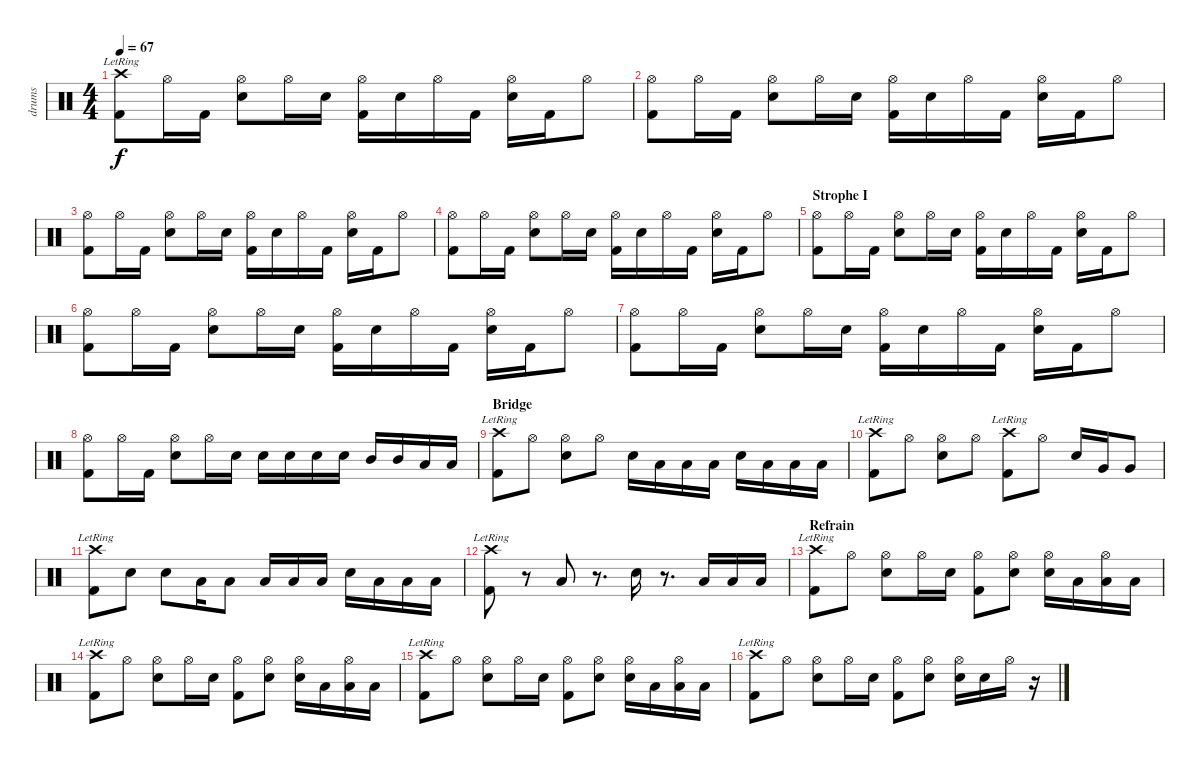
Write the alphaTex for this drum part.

\track ("drums" "drums") {instrument percussion}
\staff {score}
\articulation defaults
\ts (4 4)
\tempo 67
\clef neutral
\ks c
("Crash high (hit)"{lr} "Kick (hit) 2").8{dy f} "Hi-Hat (open)".16 "Kick (hit) 2".16 ("Hi-Hat (open)" "Snare (hit) 2").8 "Hi-Hat (open)".16 "Snare (hit) 2".16 ("Hi-Hat (open)" "Kick (hit) 2").16 "Snare (hit) 2".16 "Hi-Hat (open)".16 "Kick (hit) 2".16 ("Hi-Hat (open)" "Snare (hit) 2").16 "Kick (hit) 2".16 "Hi-Hat (open)".8 |
("Hi-Hat (open)" "Kick (hit) 2").8 "Hi-Hat (open)".16 "Kick (hit) 2".16 ("Hi-Hat (open)" "Snare (hit) 2").8 "Hi-Hat (open)".16 "Snare (hit) 2".16 ("Hi-Hat (open)" "Kick (hit) 2").16 "Snare (hit) 2".16 "Hi-Hat (open)".16 "Kick (hit) 2".16 ("Hi-Hat (open)" "Snare (hit) 2").16 "Kick (hit) 2".16 "Hi-Hat (open)".8 |
("Hi-Hat (open)" "Kick (hit) 2").8 "Hi-Hat (open)".16 "Kick (hit) 2".16 ("Hi-Hat (open)" "Snare (hit) 2").8 "Hi-Hat (open)".16 "Snare (hit) 2".16 ("Hi-Hat (open)" "Kick (hit) 2").16 "Snare (hit) 2".16 "Hi-Hat (open)".16 "Kick (hit) 2".16 ("Hi-Hat (open)" "Snare (hit) 2").16 "Kick (hit) 2".16 "Hi-Hat (open)".8 |
("Hi-Hat (open)" "Kick (hit) 2").8 "Hi-Hat (open)".16 "Kick (hit) 2".16 ("Hi-Hat (open)" "Snare (hit) 2").8 "Hi-Hat (open)".16 "Snare (hit) 2".16 ("Hi-Hat (open)" "Kick (hit) 2").16 "Snare (hit) 2".16 "Hi-Hat (open)".16 "Kick (hit) 2".16 ("Hi-Hat (open)" "Snare (hit) 2").16 "Kick (hit) 2".16 "Hi-Hat (open)".8 |
\section ("" "Strophe I")
("Hi-Hat (open)" "Kick (hit) 2").8 "Hi-Hat (open)".16 "Kick (hit) 2".16 ("Hi-Hat (open)" "Snare (hit) 2").8 "Hi-Hat (open)".16 "Snare (hit) 2".16 ("Hi-Hat (open)" "Kick (hit) 2").16 "Snare (hit) 2".16 "Hi-Hat (open)".16 "Kick (hit) 2".16 ("Hi-Hat (open)" "Snare (hit) 2").16 "Kick (hit) 2".16 "Hi-Hat (open)".8 |
("Hi-Hat (open)" "Kick (hit) 2").8 "Hi-Hat (open)".16 "Kick (hit) 2".16 ("Hi-Hat (open)" "Snare (hit) 2").8 "Hi-Hat (open)".16 "Snare (hit) 2".16 ("Hi-Hat (open)" "Kick (hit) 2").16 "Snare (hit) 2".16 "Hi-Hat (open)".16 "Kick (hit) 2".16 ("Hi-Hat (open)" "Snare (hit) 2").16 "Kick (hit) 2".16 "Hi-Hat (open)".8 |
("Hi-Hat (open)" "Kick (hit) 2").8 "Hi-Hat (open)".16 "Kick (hit) 2".16 ("Hi-Hat (open)" "Snare (hit) 2").8 "Hi-Hat (open)".16 "Snare (hit) 2".16 ("Hi-Hat (open)" "Kick (hit) 2").16 "Snare (hit) 2".16 "Hi-Hat (open)".16 "Kick (hit) 2".16 ("Hi-Hat (open)" "Snare (hit) 2").16 "Kick (hit) 2".16 "Hi-Hat (open)".8 |
("Hi-Hat (open)" "Kick (hit) 2").8 "Hi-Hat (open)".16 "Kick (hit) 2".16 ("Hi-Hat (open)" "Snare (hit) 2").8 "Hi-Hat (open)".16 "Snare (hit) 2".16 "Snare (hit) 2".16 "Snare (hit) 2".16 "Snare (hit) 2".16 "Snare (hit) 2".16 "Mid Tom (hit)".16 "Mid Tom (hit)".16 "Low Tom (hit)".16 "Low Tom (hit)".16 |
\section ("" "Bridge")
("Crash high (hit)"{lr} "Kick (hit) 2").8 "Hi-Hat (open)".8 ("Hi-Hat (open)" "Snare (hit) 2").8 "Hi-Hat (open)".8 "Snare (hit) 2".16 "Low Tom (hit)".16 "Low Tom (hit)".16 "Low Tom (hit)".16 "Snare (hit) 2".16 "Low Tom (hit)".16 "Low Tom (hit)".16 "Low Tom (hit)".16 |
("Crash high (hit)"{lr} "Kick (hit) 2").8 "Hi-Hat (open)".8 ("Hi-Hat (open)" "Snare (hit) 2").8 "Hi-Hat (open)".8 ("Crash high (hit)"{lr} "Kick (hit) 2").8 "Hi-Hat (open)".8 "Snare (hit) 2".16 "Very Low Tom (hit)".16 "Very Low Tom (hit)".8 |
("Crash high (hit)"{lr} "Kick (hit) 2").8 "Snare (hit) 2".8 "Snare (hit) 2".8 "Low Tom (hit)".16 "Low Tom (hit)".8 "Low Tom (hit)".16 "Low Tom (hit)".16 "Low Tom (hit)".16 "Snare (hit) 2".16 "Low Tom (hit)".16 "Low Tom (hit)".16 "Low Tom (hit)".16 |
("Crash high (hit)"{lr} "Kick (hit) 2").8 r.8 "Low Tom (hit)".8 r.8{d} "Snare (hit) 2".16 r.8{d} "Low Tom (hit)".16 "Low Tom (hit)".16 "Low Tom (hit)".16 |
\section ("" "Refrain")
("Crash high (hit)"{lr} "Kick (hit) 2").8 "Hi-Hat (open)".8 ("Hi-Hat (open)" "Snare (hit) 2").8 "Hi-Hat (open)".16 "Snare (hit) 2".16 ("Hi-Hat (open)" "Kick (hit) 2").8 ("Hi-Hat (open)" "Snare (hit) 2").8 ("Hi-Hat (open)" "Snare (hit) 2").16 "Low Tom (hit)".16 ("Hi-Hat (open)" "Low Tom (hit)").16 "Low Tom (hit)".16 |
("Crash high (hit)"{lr} "Kick (hit) 2").8 "Hi-Hat (open)".8 ("Hi-Hat (open)" "Snare (hit) 2").8 "Hi-Hat (open)".16 "Snare (hit) 2".16 ("Hi-Hat (open)" "Kick (hit) 2").8 ("Hi-Hat (open)" "Snare (hit) 2").8 ("Hi-Hat (open)" "Snare (hit) 2").16 "Low Tom (hit)".16 ("Hi-Hat (open)" "Low Tom (hit)").16 "Low Tom (hit)".16 |
("Crash high (hit)"{lr} "Kick (hit) 2").8 "Hi-Hat (open)".8 ("Hi-Hat (open)" "Snare (hit) 2").8 "Hi-Hat (open)".16 "Snare (hit) 2".16 ("Hi-Hat (open)" "Kick (hit) 2").8 ("Hi-Hat (open)" "Snare (hit) 2").8 ("Hi-Hat (open)" "Snare (hit) 2").16 "Low Tom (hit)".16 ("Hi-Hat (open)" "Low Tom (hit)").16 "Low Tom (hit)".16 |
("Crash high (hit)"{lr} "Kick (hit) 2").8 "Hi-Hat (open)".8 ("Hi-Hat (open)" "Snare (hit) 2").8 "Hi-Hat (open)".16 "Snare (hit) 2".16 ("Hi-Hat (open)" "Kick (hit) 2").8 ("Hi-Hat (open)" "Snare (hit) 2").8 ("Hi-Hat (open)" "Snare (hit) 2").16 "Snare (hit) 2".16 "Hi-Hat (open)".16 r.16
